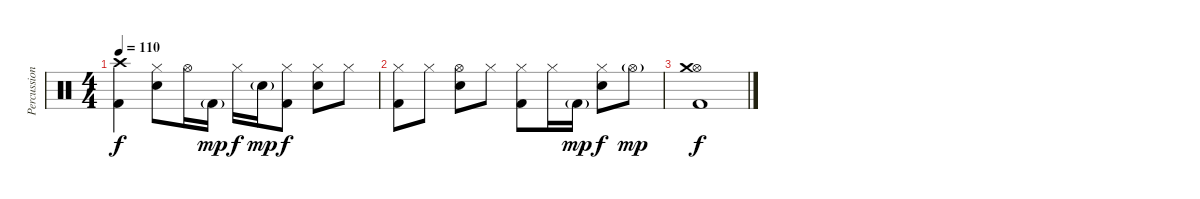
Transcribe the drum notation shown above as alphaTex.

\track ("Percussion" "Percussion") {instrument percussion}
\staff {score}
\articulation defaults
\ts (4 4)
\tempo 110
\clef neutral
\ks c
("Crash high (hit)" "Kick (hit) 2").4{dy f} ("Hi-Hat (closed)" "Electric Snare (hit)").8 "Hi-Hat (open)".16 "Kick (hit) 2"{g}.16{dy mp} "Hi-Hat (closed)".16{dy f} "Electric Snare (hit)"{g}.16{dy mp} ("Hi-Hat (closed)" "Kick (hit) 2").8{dy f} ("Hi-Hat (closed)" "Electric Snare (hit)").8 "Hi-Hat (closed)".8 |
("Hi-Hat (closed)" "Kick (hit) 2").8 "Hi-Hat (closed)".8 ("Hi-Hat (open)" "Electric Snare (hit)").8 "Hi-Hat (closed)".8 ("Hi-Hat (closed)" "Kick (hit) 2").8 "Hi-Hat (closed)".16 "Kick (hit) 2"{g}.16{dy mp} ("Hi-Hat (closed)" "Electric Snare (hit)").8{dy f} "Hi-Hat (open)"{g}.8{dy mp} |
("Hi-Hat (open)" "Crash medium (hit)" "Kick (hit) 2").1{dy f}
